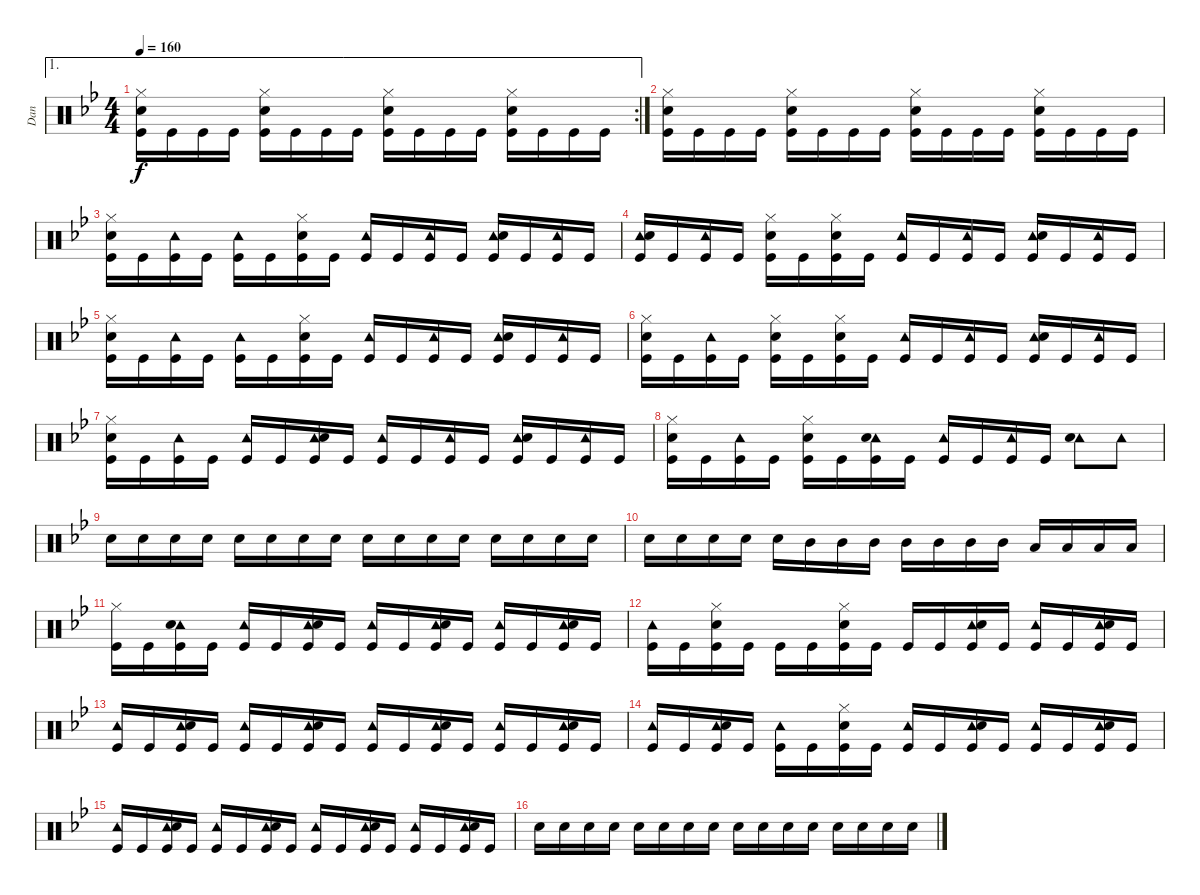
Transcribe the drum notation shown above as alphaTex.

\track ("Dan" "Dan") {instrument percussion}
\staff {score}
\articulation defaults
\ae 1
\rc 2
\ts (4 4)
\tempo 160
\clef neutral
\ks bb
("Hi-Hat (closed)" "Snare (hit) 2" "Kick (hit)").16{dy f} "Kick (hit)".16 "Kick (hit)".16 "Kick (hit)".16 ("Hi-Hat (closed)" "Snare (hit) 2" "Kick (hit)").16 "Kick (hit)".16 "Kick (hit)".16 "Kick (hit)".16 ("Hi-Hat (closed)" "Snare (hit) 2" "Kick (hit)").16 "Kick (hit)".16 "Kick (hit)".16 "Kick (hit)".16 ("Hi-Hat (closed)" "Snare (hit) 2" "Kick (hit)").16 "Kick (hit)".16 "Kick (hit)".16 "Kick (hit)".16 |
("Hi-Hat (closed)" "Snare (hit) 2" "Kick (hit)").16 "Kick (hit)".16 "Kick (hit)".16 "Kick (hit)".16 ("Hi-Hat (closed)" "Snare (hit) 2" "Kick (hit)").16 "Kick (hit)".16 "Kick (hit)".16 "Kick (hit)".16 ("Hi-Hat (closed)" "Snare (hit) 2" "Kick (hit)").16 "Kick (hit)".16 "Kick (hit)".16 "Kick (hit)".16 ("Hi-Hat (closed)" "Snare (hit) 2" "Kick (hit)").16 "Kick (hit)".16 "Kick (hit)".16 "Kick (hit)".16 |
("Hi-Hat (closed)" "Snare (hit) 2" "Kick (hit)").16 "Kick (hit)".16 ("Tambourine (hit)" "Kick (hit)").16 "Kick (hit)".16 ("Tambourine (hit)" "Kick (hit)").16 "Kick (hit)".16 ("Hi-Hat (closed)" "Snare (hit) 2" "Kick (hit)").16 "Kick (hit)".16 ("Tambourine (hit)" "Kick (hit)").16 "Kick (hit)".16 ("Tambourine (hit)" "Kick (hit)").16 "Kick (hit)".16 ("Tambourine (hit)" "Snare (hit) 2" "Kick (hit)").16 "Kick (hit)".16 ("Tambourine (hit)" "Kick (hit)").16 "Kick (hit)".16 |
("Tambourine (hit)" "Snare (hit) 2" "Kick (hit)").16 "Kick (hit)".16 ("Tambourine (hit)" "Kick (hit)").16 "Kick (hit)".16 ("Hi-Hat (closed)" "Snare (hit) 2" "Kick (hit)").16 "Kick (hit)".16 ("Hi-Hat (closed)" "Snare (hit) 2" "Kick (hit)").16 "Kick (hit)".16 ("Tambourine (hit)" "Kick (hit)").16 "Kick (hit)".16 ("Tambourine (hit)" "Kick (hit)").16 "Kick (hit)".16 ("Tambourine (hit)" "Snare (hit) 2" "Kick (hit)").16 "Kick (hit)".16 ("Tambourine (hit)" "Kick (hit)").16 "Kick (hit)".16 |
("Hi-Hat (closed)" "Snare (hit) 2" "Kick (hit)").16 "Kick (hit)".16 ("Tambourine (hit)" "Kick (hit)").16 "Kick (hit)".16 ("Tambourine (hit)" "Kick (hit)").16 "Kick (hit)".16 ("Hi-Hat (closed)" "Snare (hit) 2" "Kick (hit)").16 "Kick (hit)".16 ("Tambourine (hit)" "Kick (hit)").16 "Kick (hit)".16 ("Tambourine (hit)" "Kick (hit)").16 "Kick (hit)".16 ("Tambourine (hit)" "Snare (hit) 2" "Kick (hit)").16 "Kick (hit)".16 ("Tambourine (hit)" "Kick (hit)").16 "Kick (hit)".16 |
("Hi-Hat (closed)" "Snare (hit) 2" "Kick (hit)").16 "Kick (hit)".16 ("Tambourine (hit)" "Kick (hit)").16 "Kick (hit)".16 ("Hi-Hat (closed)" "Snare (hit) 2" "Kick (hit)").16 "Kick (hit)".16 ("Hi-Hat (closed)" "Snare (hit) 2" "Kick (hit)").16 "Kick (hit)".16 ("Tambourine (hit)" "Kick (hit)").16 "Kick (hit)".16 ("Tambourine (hit)" "Kick (hit)").16 "Kick (hit)".16 ("Tambourine (hit)" "Snare (hit) 2" "Kick (hit)").16 "Kick (hit)".16 ("Tambourine (hit)" "Kick (hit)").16 "Kick (hit)".16 |
("Hi-Hat (closed)" "Snare (hit) 2" "Kick (hit)").16 "Kick (hit)".16 ("Tambourine (hit)" "Kick (hit)").16 "Kick (hit)".16 ("Tambourine (hit)" "Kick (hit)").16 "Kick (hit)".16 ("Tambourine (hit)" "Snare (hit) 2" "Kick (hit)").16 "Kick (hit)".16 ("Tambourine (hit)" "Kick (hit)").16 "Kick (hit)".16 ("Tambourine (hit)" "Kick (hit)").16 "Kick (hit)".16 ("Tambourine (hit)" "Snare (hit) 2" "Kick (hit)").16 "Kick (hit)".16 ("Tambourine (hit)" "Kick (hit)").16 "Kick (hit)".16 |
("Hi-Hat (closed)" "Snare (hit) 2" "Kick (hit)").16 "Kick (hit)".16 ("Tambourine (hit)" "Kick (hit)").16 "Kick (hit)".16 ("Hi-Hat (closed)" "Snare (hit) 2" "Kick (hit)").16 "Kick (hit)".16 ("Tambourine (hit)" "Snare (hit) 2" "Kick (hit)").16 "Kick (hit)".16 ("Tambourine (hit)" "Kick (hit)").16 "Kick (hit)".16 ("Tambourine (hit)" "Kick (hit)").16 "Kick (hit)".16 ("Tambourine (hit)" "Snare (hit) 2").8 "Tambourine (hit)".8 |
"Snare (hit) 2".16 "Snare (hit) 2".16 "Snare (hit) 2".16 "Snare (hit) 2".16 "Snare (hit) 2".16 "Snare (hit) 2".16 "Snare (hit) 2".16 "Snare (hit) 2".16 "Snare (hit) 2".16 "Snare (hit) 2".16 "Snare (hit) 2".16 "Snare (hit) 2".16 "Snare (hit) 2".16 "Snare (hit) 2".16 "Snare (hit) 2".16 "Snare (hit) 2".16 |
"Snare (hit) 2".16 "Snare (hit) 2".16 "Snare (hit) 2".16 "Snare (hit) 2".16 "Snare (hit) 2".16 "Mid Tom (hit)".16 "Mid Tom (hit)".16 "Mid Tom (hit)".16 "Mid Tom (hit)".16 "Mid Tom (hit)".16 "Mid Tom (hit)".16 "Mid Tom (hit)".16 "Low Tom (hit)".16 "Low Tom (hit)".16 "Low Tom (hit)".16 "Low Tom (hit)".16 |
("Hi-Hat (closed)" "Kick (hit)").16 "Kick (hit)".16 ("Tambourine (hit)" "Snare (hit) 2" "Kick (hit)").16 "Kick (hit)".16 ("Tambourine (hit)" "Kick (hit)").16 "Kick (hit)".16 ("Tambourine (hit)" "Snare (hit) 2" "Kick (hit)").16 "Kick (hit)".16 ("Tambourine (hit)" "Kick (hit)").16 "Kick (hit)".16 ("Tambourine (hit)" "Snare (hit) 2" "Kick (hit)").16 "Kick (hit)".16 ("Tambourine (hit)" "Kick (hit)").16 "Kick (hit)".16 ("Tambourine (hit)" "Snare (hit) 2" "Kick (hit)").16 "Kick (hit)".16 |
("Tambourine (hit)" "Kick (hit)").16 "Kick (hit)".16 ("Hi-Hat (closed)" "Snare (hit) 2" "Kick (hit)").16 "Kick (hit)".16 "Kick (hit)".16 "Kick (hit)".16 ("Hi-Hat (closed)" "Snare (hit) 2" "Kick (hit)").16 "Kick (hit)".16 "Kick (hit)".16 "Kick (hit)".16 ("Tambourine (hit)" "Snare (hit) 2" "Kick (hit)").16 "Kick (hit)".16 ("Tambourine (hit)" "Kick (hit)").16 "Kick (hit)".16 ("Tambourine (hit)" "Snare (hit) 2" "Kick (hit)").16 "Kick (hit)".16 |
("Tambourine (hit)" "Kick (hit)").16 "Kick (hit)".16 ("Tambourine (hit)" "Snare (hit) 2" "Kick (hit)").16 "Kick (hit)".16 ("Tambourine (hit)" "Kick (hit)").16 "Kick (hit)".16 ("Tambourine (hit)" "Snare (hit) 2" "Kick (hit)").16 "Kick (hit)".16 ("Tambourine (hit)" "Kick (hit)").16 "Kick (hit)".16 ("Tambourine (hit)" "Snare (hit) 2" "Kick (hit)").16 "Kick (hit)".16 ("Tambourine (hit)" "Kick (hit)").16 "Kick (hit)".16 ("Tambourine (hit)" "Snare (hit) 2" "Kick (hit)").16 "Kick (hit)".16 |
("Tambourine (hit)" "Kick (hit)").16 "Kick (hit)".16 ("Tambourine (hit)" "Snare (hit) 2" "Kick (hit)").16 "Kick (hit)".16 ("Tambourine (hit)" "Kick (hit)").16 "Kick (hit)".16 ("Hi-Hat (closed)" "Snare (hit) 2" "Kick (hit)").16 "Kick (hit)".16 ("Tambourine (hit)" "Kick (hit)").16 "Kick (hit)".16 ("Tambourine (hit)" "Snare (hit) 2" "Kick (hit)").16 "Kick (hit)".16 ("Tambourine (hit)" "Kick (hit)").16 "Kick (hit)".16 ("Tambourine (hit)" "Snare (hit) 2" "Kick (hit)").16 "Kick (hit)".16 |
("Tambourine (hit)" "Kick (hit)").16 "Kick (hit)".16 ("Tambourine (hit)" "Snare (hit) 2" "Kick (hit)").16 "Kick (hit)".16 ("Tambourine (hit)" "Kick (hit)").16 "Kick (hit)".16 ("Tambourine (hit)" "Snare (hit) 2" "Kick (hit)").16 "Kick (hit)".16 ("Tambourine (hit)" "Kick (hit)").16 "Kick (hit)".16 ("Tambourine (hit)" "Snare (hit) 2" "Kick (hit)").16 "Kick (hit)".16 ("Tambourine (hit)" "Kick (hit)").16 "Kick (hit)".16 ("Tambourine (hit)" "Snare (hit) 2" "Kick (hit)").16 "Kick (hit)".16 |
"Snare (hit) 2".16 "Snare (hit) 2".16 "Snare (hit) 2".16 "Snare (hit) 2".16 "Snare (hit) 2".16 "Snare (hit) 2".16 "Snare (hit) 2".16 "Snare (hit) 2".16 "Snare (hit) 2".16 "Snare (hit) 2".16 "Snare (hit) 2".16 "Snare (hit) 2".16 "Snare (hit) 2".16 "Snare (hit) 2".16 "Snare (hit) 2".16 "Snare (hit) 2".16
